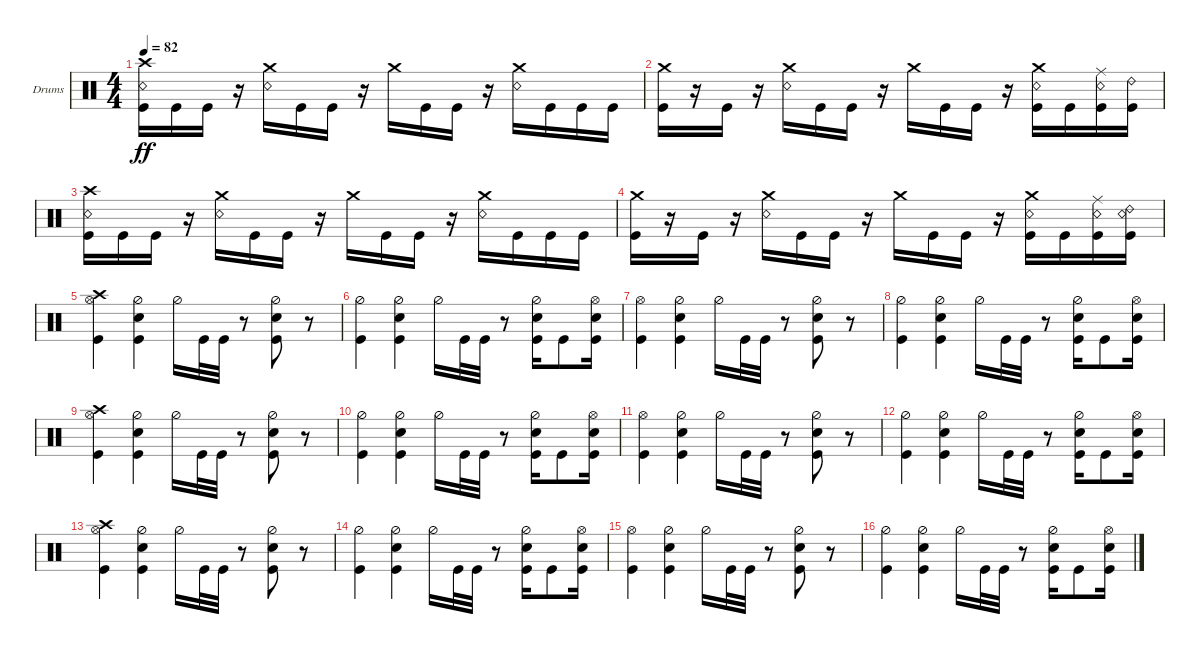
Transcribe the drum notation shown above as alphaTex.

\bracketExtendMode groupsimilarinstruments
\firstSystemTrackNameOrientation horizontal
\otherSystemsTrackNameOrientation horizontal
\track ("Drumkit" "Drums") {instrument percussion}
\staff {score}
\articulation defaults
\ts (4 4)
\tempo 82
\clef neutral
\ks c
("Crash high (hit)" "Snare (rim shot)" "Kick (hit)").16{dy ff} "Kick (hit)".16 "Kick (hit)".16 r.16 ("Snare (rim shot)" "Crash medium (hit)").16 "Kick (hit)".16 "Kick (hit)".16 r.16 "Crash medium (hit)".16 "Kick (hit)".16 "Kick (hit)".16 r.16 ("Snare (rim shot)" "Crash medium (hit)").16 "Kick (hit)".16 "Kick (hit)".16 "Kick (hit)".16 |
("Kick (hit)" "Crash medium (hit)").16 r.16 "Kick (hit)".16 r.16 ("Snare (rim shot)" "Crash medium (hit)").16 "Kick (hit)".16 "Kick (hit)".16 r.16 "Crash medium (hit)".16 "Kick (hit)".16 "Kick (hit)".16 r.16 ("Kick (hit)" "Snare (rim shot)" "Crash medium (hit)").16 "Kick (hit)".16 ("Kick (hit)" "Snare (rim shot)" "Ride (middle)").16 ("Kick (hit)" "Ride (bell) 2").16 |
("Snare (rim shot)" "Kick (hit)" "Crash high (hit)").16 "Kick (hit)".16 "Kick (hit)".16 r.16 ("Snare (rim shot)" "Crash medium (hit)").16 "Kick (hit)".16 "Kick (hit)".16 r.16 "Crash medium (hit)".16 "Kick (hit)".16 "Kick (hit)".16 r.16 ("Snare (rim shot)" "Crash medium (hit)").16 "Kick (hit)".16 "Kick (hit)".16 "Kick (hit)".16 |
("Kick (hit)" "Crash medium (hit)").16 r.16 "Kick (hit)".16 r.16 ("Snare (rim shot)" "Crash medium (hit)").16 "Kick (hit)".16 "Kick (hit)".16 r.16 "Crash medium (hit)".16 "Kick (hit)".16 "Kick (hit)".16 r.16 ("Kick (hit)" "Snare (rim shot)" "Crash medium (hit)").16 "Kick (hit)".16 ("Kick (hit)" "Snare (rim shot)" "Ride (middle)").16 ("Kick (hit)" "Snare (rim shot)" "Ride (bell) 2").16 |
("Kick (hit)" "Hi-Hat (open)" "Crash high (hit)").4 ("Kick (hit)" "Snare (hit) 2" "Hi-Hat (half)").4 "Hi-Hat (half)".16 "Kick (hit)".32 "Kick (hit)".32 r.8 ("Kick (hit)" "Snare (hit) 2" "Hi-Hat (half)").8 r.8 |
("Kick (hit)" "Hi-Hat (half)").4 ("Kick (hit)" "Snare (hit) 2" "Hi-Hat (half)").4 "Hi-Hat (half)".16 "Kick (hit)".32 "Kick (hit)".32 r.8 ("Kick (hit)" "Snare (hit) 2" "Hi-Hat (half)").16 "Kick (hit)".8 ("Kick (hit)" "Snare (hit) 2" "Hi-Hat (open)").16 |
("Kick (hit)" "Hi-Hat (open)").4 ("Kick (hit)" "Snare (hit) 2" "Hi-Hat (half)").4 "Hi-Hat (half)".16 "Kick (hit)".32 "Kick (hit)".32 r.8 ("Kick (hit)" "Snare (hit) 2" "Hi-Hat (half)").8 r.8 |
("Kick (hit)" "Hi-Hat (half)").4 ("Kick (hit)" "Snare (hit) 2" "Hi-Hat (half)").4 "Hi-Hat (half)".16 "Kick (hit)".32 "Kick (hit)".32 r.8 ("Kick (hit)" "Snare (hit) 2" "Hi-Hat (half)").16 "Kick (hit)".8 ("Kick (hit)" "Snare (hit) 2" "Hi-Hat (open)").16 |
("Kick (hit)" "Hi-Hat (open)" "Crash high (hit)").4 ("Kick (hit)" "Snare (hit) 2" "Hi-Hat (half)").4 "Hi-Hat (half)".16 "Kick (hit)".32 "Kick (hit)".32 r.8 ("Kick (hit)" "Snare (hit) 2" "Hi-Hat (half)").8 r.8 |
("Kick (hit)" "Hi-Hat (half)").4 ("Kick (hit)" "Snare (hit) 2" "Hi-Hat (half)").4 "Hi-Hat (half)".16 "Kick (hit)".32 "Kick (hit)".32 r.8 ("Kick (hit)" "Snare (hit) 2" "Hi-Hat (half)").16 "Kick (hit)".8 ("Kick (hit)" "Snare (hit) 2" "Hi-Hat (open)").16 |
("Kick (hit)" "Hi-Hat (open)").4 ("Kick (hit)" "Snare (hit) 2" "Hi-Hat (half)").4 "Hi-Hat (half)".16 "Kick (hit)".32 "Kick (hit)".32 r.8 ("Kick (hit)" "Snare (hit) 2" "Hi-Hat (half)").8 r.8 |
("Kick (hit)" "Hi-Hat (half)").4 ("Kick (hit)" "Snare (hit) 2" "Hi-Hat (half)").4 "Hi-Hat (half)".16 "Kick (hit)".32 "Kick (hit)".32 r.8 ("Kick (hit)" "Snare (hit) 2" "Hi-Hat (half)").16 "Kick (hit)".8 ("Kick (hit)" "Snare (hit) 2" "Hi-Hat (open)").16 |
("Kick (hit)" "Hi-Hat (open)" "Crash high (hit)").4 ("Kick (hit)" "Snare (hit) 2" "Hi-Hat (half)").4 "Hi-Hat (half)".16 "Kick (hit)".32 "Kick (hit)".32 r.8 ("Kick (hit)" "Snare (hit) 2" "Hi-Hat (half)").8 r.8 |
("Kick (hit)" "Hi-Hat (half)").4 ("Kick (hit)" "Snare (hit) 2" "Hi-Hat (half)").4 "Hi-Hat (half)".16 "Kick (hit)".32 "Kick (hit)".32 r.8 ("Kick (hit)" "Snare (hit) 2" "Hi-Hat (half)").16 "Kick (hit)".8 ("Kick (hit)" "Snare (hit) 2" "Hi-Hat (open)").16 |
("Kick (hit)" "Hi-Hat (open)").4 ("Kick (hit)" "Snare (hit) 2" "Hi-Hat (half)").4 "Hi-Hat (half)".16 "Kick (hit)".32 "Kick (hit)".32 r.8 ("Kick (hit)" "Snare (hit) 2" "Hi-Hat (half)").8 r.8 |
("Kick (hit)" "Hi-Hat (half)").4 ("Kick (hit)" "Snare (hit) 2" "Hi-Hat (half)").4 "Hi-Hat (half)".16 "Kick (hit)".32 "Kick (hit)".32 r.8 ("Kick (hit)" "Snare (hit) 2" "Hi-Hat (half)").16 "Kick (hit)".8 ("Kick (hit)" "Snare (hit) 2" "Hi-Hat (open)").16
